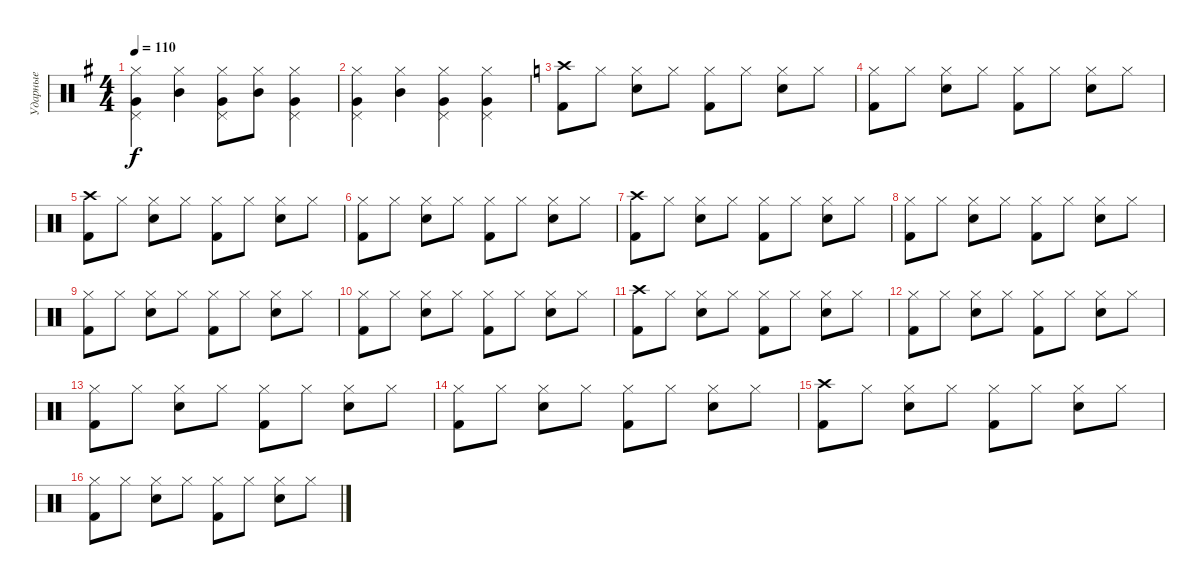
\track ("Ударные" "Ударные") {instrument percussion}
\staff {score}
\articulation defaults
\ts (4 4)
\tempo 110
\clef neutral
\ks g
("Very Low Tom (hit)" "Pedal Hi-Hat (hit)" "Hi-Hat (closed)").4{dy f} ("Mid Tom (hit)" "Hi-Hat (closed)").4 ("Very Low Tom (hit)" "Pedal Hi-Hat (hit)" "Hi-Hat (closed)").8 ("Mid Tom (hit)" "Hi-Hat (closed)").8 ("Very Low Tom (hit)" "Pedal Hi-Hat (hit)" "Hi-Hat (closed)").4 |
("Very Low Tom (hit)" "Pedal Hi-Hat (hit)" "Hi-Hat (closed)").4 ("Mid Tom (hit)" "Hi-Hat (closed)").4 ("Very Low Tom (hit)" "Pedal Hi-Hat (hit)" "Hi-Hat (closed)").4 ("Very Low Tom (hit)" "Pedal Hi-Hat (hit)" "Hi-Hat (closed)").4 |
\ks c
("Crash high (hit)" "Kick (hit) 2").8 "Hi-Hat (closed)".8 ("Hi-Hat (closed)" "Electric Snare (hit)").8 "Hi-Hat (closed)".8 ("Hi-Hat (closed)" "Kick (hit) 2").8 "Hi-Hat (closed)".8 ("Hi-Hat (closed)" "Electric Snare (hit)").8 "Hi-Hat (closed)".8 |
("Hi-Hat (closed)" "Kick (hit) 2").8 "Hi-Hat (closed)".8 ("Hi-Hat (closed)" "Electric Snare (hit)").8 "Hi-Hat (closed)".8 ("Hi-Hat (closed)" "Kick (hit) 2").8 "Hi-Hat (closed)".8 ("Hi-Hat (closed)" "Electric Snare (hit)").8 "Hi-Hat (closed)".8 |
("Crash high (hit)" "Kick (hit) 2").8 "Hi-Hat (closed)".8 ("Hi-Hat (closed)" "Electric Snare (hit)").8 "Hi-Hat (closed)".8 ("Hi-Hat (closed)" "Kick (hit) 2").8 "Hi-Hat (closed)".8 ("Hi-Hat (closed)" "Electric Snare (hit)").8 "Hi-Hat (closed)".8 |
("Hi-Hat (closed)" "Kick (hit) 2").8 "Hi-Hat (closed)".8 ("Hi-Hat (closed)" "Electric Snare (hit)").8 "Hi-Hat (closed)".8 ("Hi-Hat (closed)" "Kick (hit) 2").8 "Hi-Hat (closed)".8 ("Hi-Hat (closed)" "Electric Snare (hit)").8 "Hi-Hat (closed)".8 |
("Crash high (hit)" "Kick (hit) 2").8 "Hi-Hat (closed)".8 ("Hi-Hat (closed)" "Electric Snare (hit)").8 "Hi-Hat (closed)".8 ("Hi-Hat (closed)" "Kick (hit) 2").8 "Hi-Hat (closed)".8 ("Hi-Hat (closed)" "Electric Snare (hit)").8 "Hi-Hat (closed)".8 |
("Hi-Hat (closed)" "Kick (hit) 2").8 "Hi-Hat (closed)".8 ("Hi-Hat (closed)" "Electric Snare (hit)").8 "Hi-Hat (closed)".8 ("Hi-Hat (closed)" "Kick (hit) 2").8 "Hi-Hat (closed)".8 ("Hi-Hat (closed)" "Electric Snare (hit)").8 "Hi-Hat (closed)".8 |
("Hi-Hat (closed)" "Kick (hit) 2").8 "Hi-Hat (closed)".8 ("Hi-Hat (closed)" "Electric Snare (hit)").8 "Hi-Hat (closed)".8 ("Hi-Hat (closed)" "Kick (hit) 2").8 "Hi-Hat (closed)".8 ("Hi-Hat (closed)" "Electric Snare (hit)").8 "Hi-Hat (closed)".8 |
("Hi-Hat (closed)" "Kick (hit) 2").8 "Hi-Hat (closed)".8 ("Hi-Hat (closed)" "Electric Snare (hit)").8 "Hi-Hat (closed)".8 ("Hi-Hat (closed)" "Kick (hit) 2").8 "Hi-Hat (closed)".8 ("Hi-Hat (closed)" "Electric Snare (hit)").8 "Hi-Hat (closed)".8 |
("Crash high (hit)" "Kick (hit) 2").8 "Hi-Hat (closed)".8 ("Hi-Hat (closed)" "Electric Snare (hit)").8 "Hi-Hat (closed)".8 ("Hi-Hat (closed)" "Kick (hit) 2").8 "Hi-Hat (closed)".8 ("Hi-Hat (closed)" "Electric Snare (hit)").8 "Hi-Hat (closed)".8 |
("Hi-Hat (closed)" "Kick (hit) 2").8 "Hi-Hat (closed)".8 ("Hi-Hat (closed)" "Electric Snare (hit)").8 "Hi-Hat (closed)".8 ("Hi-Hat (closed)" "Kick (hit) 2").8 "Hi-Hat (closed)".8 ("Hi-Hat (closed)" "Electric Snare (hit)").8 "Hi-Hat (closed)".8 |
("Hi-Hat (closed)" "Kick (hit) 2").8 "Hi-Hat (closed)".8 ("Hi-Hat (closed)" "Electric Snare (hit)").8 "Hi-Hat (closed)".8 ("Hi-Hat (closed)" "Kick (hit) 2").8 "Hi-Hat (closed)".8 ("Hi-Hat (closed)" "Electric Snare (hit)").8 "Hi-Hat (closed)".8 |
("Hi-Hat (closed)" "Kick (hit) 2").8 "Hi-Hat (closed)".8 ("Hi-Hat (closed)" "Electric Snare (hit)").8 "Hi-Hat (closed)".8 ("Hi-Hat (closed)" "Kick (hit) 2").8 "Hi-Hat (closed)".8 ("Hi-Hat (closed)" "Electric Snare (hit)").8 "Hi-Hat (closed)".8 |
("Crash high (hit)" "Kick (hit) 2").8 "Hi-Hat (closed)".8 ("Hi-Hat (closed)" "Electric Snare (hit)").8 "Hi-Hat (closed)".8 ("Hi-Hat (closed)" "Kick (hit) 2").8 "Hi-Hat (closed)".8 ("Hi-Hat (closed)" "Electric Snare (hit)").8 "Hi-Hat (closed)".8 |
("Hi-Hat (closed)" "Kick (hit) 2").8 "Hi-Hat (closed)".8 ("Hi-Hat (closed)" "Electric Snare (hit)").8 "Hi-Hat (closed)".8 ("Hi-Hat (closed)" "Kick (hit) 2").8 "Hi-Hat (closed)".8 ("Hi-Hat (closed)" "Electric Snare (hit)").8 "Hi-Hat (closed)".8
